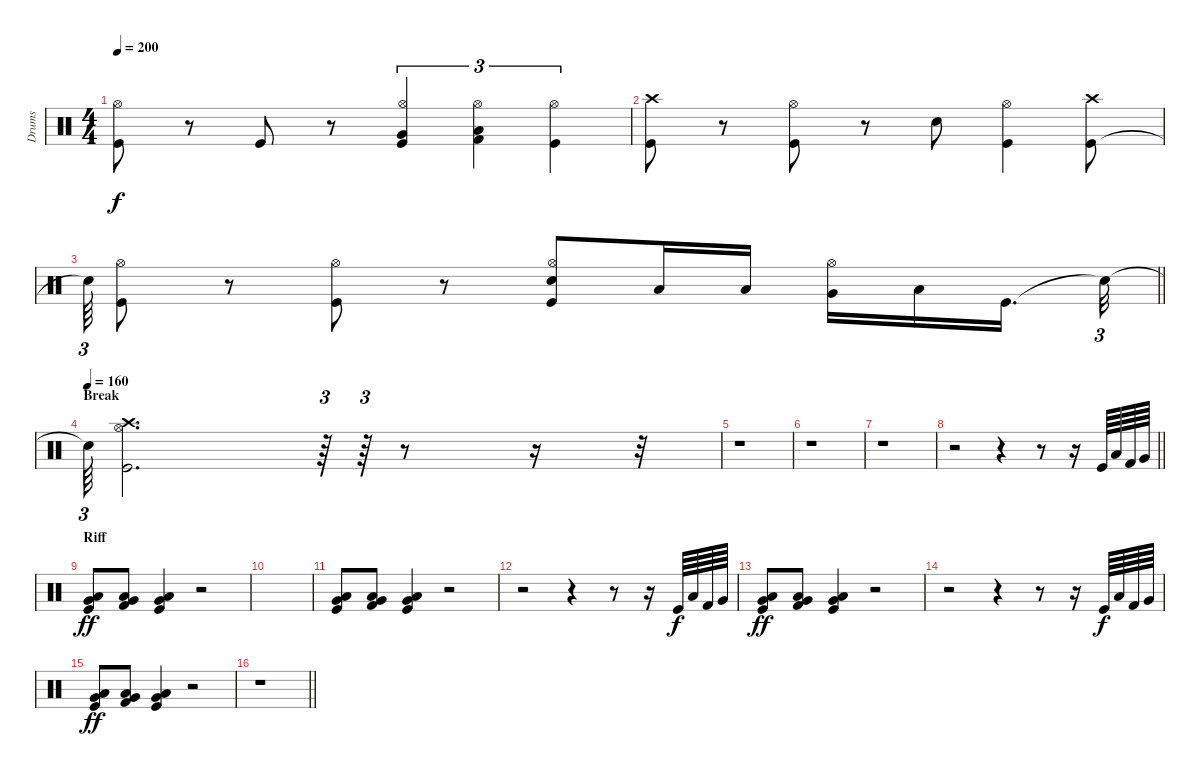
\track ("Drums" "Drums") {instrument percussion}
\staff {score}
\articulation defaults
\ts (4 4)
\tempo 200
\clef neutral
\ks c
("Kick (hit)" "Hi-Hat (open)").8{dy f} r.8 "Kick (hit)".8 r.8 ("Kick (hit)" "Hi-Hat (open)" "Very Low Tom (hit)").4{tu (3 2)} ("Kick (hit) 2" "Hi-Hat (open)" "Low Floor Tom (hit)").4{tu (3 2)} ("Kick (hit)" "Hi-Hat (open)").4{tu (3 2)} |
("Kick (hit)" "Crash high (hit)").8 r.8 ("Kick (hit)" "Hi-Hat (open)").8 r.8 "Electric Snare (hit)".8 ("Kick (hit)" "Hi-Hat (open)").4 ("Kick (hit)" "Crash high (hit)").8 |
\barLineRight lightlight "Snare (hit)"{t}.64{tu (3 2)}
("Kick (hit)" "Hi-Hat (open)").8 r.8 ("Kick (hit)" "Hi-Hat (open)").8 r.8 ("Kick (hit)" "Electric Snare (hit)" "Hi-Hat (open)").8 "Low Floor Tom (hit)".16 "Low Tom (hit)".16 ("Hi-Hat (open)" "Very Low Tom (hit)").16 "Low Floor Tom (hit)".16 "Kick (hit)".16{d beam splitsecondary} "Snare (hit)"{t}.32{tu (3 2)} |
\section ("" "Break")
\tempo (160)
"Snare (hit)"{t}.64{tu (3 2)} ("Kick (hit)" "Hi-Hat (open)" "Crash high (hit)").2{d} r.64{tu (3 2)} r.64{tu (3 2)} r.8 r.16 r.32 |
r.1 |
r.1 |
r.1 |
\barLineRight lightlight
r.2 r.4 r.8 r.16 "Kick (hit)".64 "Low Floor Tom (hit)".64 "Kick (hit) 2".64 "Very Low Tom (hit)".64 |
\section ("" "Riff")
("Kick (hit)" "Low Floor Tom (hit)" "Very Low Tom (hit)").8{dy ff} ("Kick (hit) 2" "Low Floor Tom (hit)" "Very Low Tom (hit)").8 ("Kick (hit)" "Low Floor Tom (hit)" "Very Low Tom (hit)").4 r.2 |
|
("Kick (hit)" "Low Floor Tom (hit)" "Very Low Tom (hit)").8 ("Kick (hit) 2" "Low Floor Tom (hit)" "Very Low Tom (hit)").8 ("Kick (hit)" "Low Floor Tom (hit)" "Very Low Tom (hit)").4 r.2 |
r.2 r.4 r.8 r.16 "Kick (hit)".64{dy f} "Low Floor Tom (hit)".64 "Kick (hit) 2".64 "Very Low Tom (hit)".64 |
("Kick (hit)" "Low Floor Tom (hit)" "Very Low Tom (hit)").8{dy ff} ("Kick (hit) 2" "Low Floor Tom (hit)" "Very Low Tom (hit)").8 ("Kick (hit)" "Low Floor Tom (hit)" "Very Low Tom (hit)").4 r.2 |
r.2 r.4 r.8 r.16 "Kick (hit)".64{dy f} "Low Floor Tom (hit)".64 "Kick (hit) 2".64 "Very Low Tom (hit)".64 |
("Kick (hit)" "Low Floor Tom (hit)" "Very Low Tom (hit)").8{dy ff} ("Kick (hit) 2" "Low Floor Tom (hit)" "Very Low Tom (hit)").8 ("Kick (hit)" "Low Floor Tom (hit)" "Very Low Tom (hit)").4 r.2 |
\barLineRight lightlight
r.1
